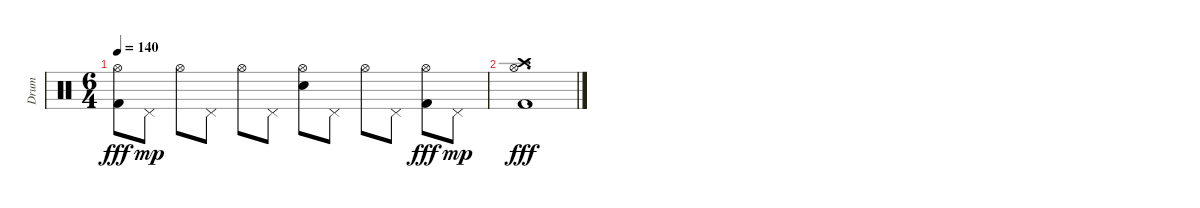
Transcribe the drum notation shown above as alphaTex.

\track ("Drum" "Drum") {instrument percussion}
\staff {score}
\articulation defaults
\ts (6 4)
\tempo 140
\clef neutral
\ks c
("Hi-Hat (open)" "Kick (hit) 2").8{dy fff} "Pedal Hi-Hat (hit)".8{dy mp} "Hi-Hat (open)".8 "Pedal Hi-Hat (hit)".8 "Hi-Hat (open)".8 "Pedal Hi-Hat (hit)".8 ("Hi-Hat (open)" "Electric Snare (hit)").8 "Pedal Hi-Hat (hit)".8 "Hi-Hat (open)".8 "Pedal Hi-Hat (hit)".8 ("Hi-Hat (open)" "Kick (hit) 2").8{dy fff} "Pedal Hi-Hat (hit)".8{dy mp} |
("Hi-Hat (open)" "Kick (hit) 2" "Crash high (hit)").1{d dy fff}
